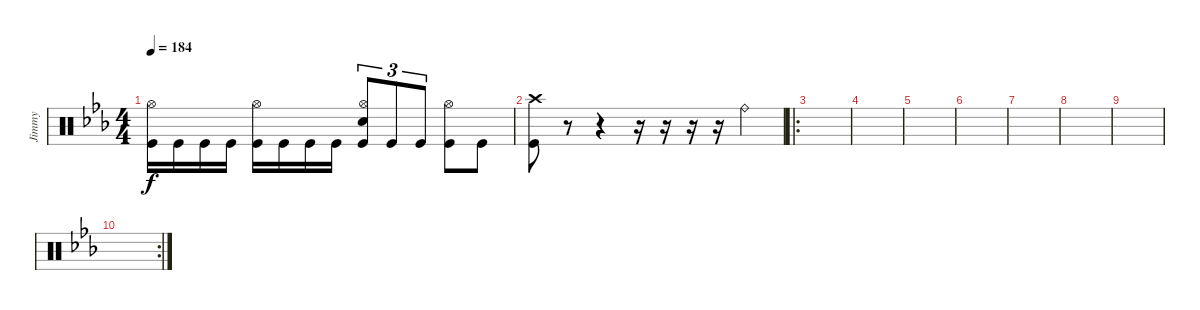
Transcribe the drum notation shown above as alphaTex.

\track ("Jimmy" "Jimmy") {instrument percussion}
\staff {score}
\articulation defaults
\ts (4 4)
\tempo 184
\clef neutral
\ks cminor
("Kick (hit)" "Hi-Hat (open)").16{dy f} "Kick (hit)".16 "Kick (hit)".16 "Kick (hit)".16 ("Kick (hit)" "Hi-Hat (open)").16 "Kick (hit)".16 "Kick (hit)".16 "Kick (hit)".16 ("Kick (hit)" "Hi-Hat (open)" "Snare (hit) 2").8{tu (3 2)} "Kick (hit)".8{tu (3 2)} "Kick (hit)".8{tu (3 2)} ("Kick (hit)" "Hi-Hat (open)").8 "Kick (hit)".8 |
("Kick (hit)" "Crash high (hit)").8 r.8{volume 0} r.4 r.16 r.16 r.16 r.16{volume 15} "Ride (bell)".4 |
\ro
|
|
|
|
|
|
|
\rc 2
